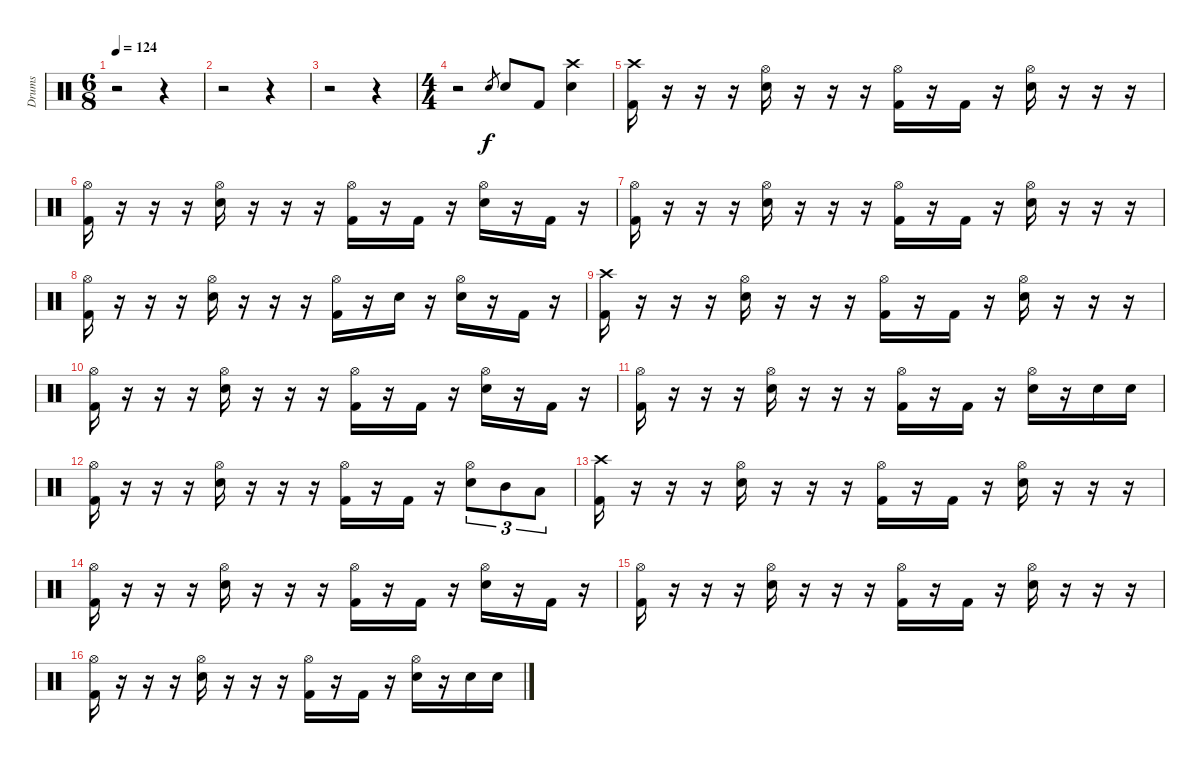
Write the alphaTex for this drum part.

\track ("Drums" "Drums") {instrument percussion}
\staff {score}
\articulation defaults
\ts (6 8)
\tempo 124
\clef neutral
\ks c
r.2{dy f} r.4 |
r.2 r.4 |
r.2 r.4 |
\ts (4 4)
r.2 "Snare (hit) 2".8{gr} "Snare (hit) 2".8 "Kick (hit) 2".8 ("Crash high (hit)" "Snare (hit) 2").4 |
("Crash high (hit)" "Kick (hit) 2").16 r.16 r.16 r.16 ("Hi-Hat (open)" "Snare (hit) 2").16 r.16 r.16 r.16 ("Hi-Hat (open)" "Kick (hit) 2").16 r.16 "Kick (hit) 2".16 r.16 ("Hi-Hat (open)" "Snare (hit) 2").16 r.16 r.16 r.16 |
("Hi-Hat (open)" "Kick (hit) 2").16 r.16 r.16 r.16 ("Hi-Hat (open)" "Snare (hit) 2").16 r.16 r.16 r.16 ("Hi-Hat (open)" "Kick (hit) 2").16 r.16 "Kick (hit) 2".16 r.16 ("Hi-Hat (open)" "Snare (hit) 2").16 r.16 "Kick (hit) 2".16 r.16 |
("Hi-Hat (open)" "Kick (hit) 2").16 r.16 r.16 r.16 ("Hi-Hat (open)" "Snare (hit) 2").16 r.16 r.16 r.16 ("Hi-Hat (open)" "Kick (hit) 2").16 r.16 "Kick (hit) 2".16 r.16 ("Hi-Hat (open)" "Snare (hit) 2").16 r.16 r.16 r.16 |
("Hi-Hat (open)" "Kick (hit) 2").16 r.16 r.16 r.16 ("Hi-Hat (open)" "Snare (hit) 2").16 r.16 r.16 r.16 ("Hi-Hat (open)" "Kick (hit) 2").16 r.16 "Snare (hit) 2".16 r.16 ("Hi-Hat (open)" "Snare (hit) 2").16 r.16 "Kick (hit) 2".16 r.16 |
("Crash high (hit)" "Kick (hit) 2").16 r.16 r.16 r.16 ("Hi-Hat (open)" "Snare (hit) 2").16 r.16 r.16 r.16 ("Hi-Hat (open)" "Kick (hit) 2").16 r.16 "Kick (hit) 2".16 r.16 ("Hi-Hat (open)" "Snare (hit) 2").16 r.16 r.16 r.16 |
("Hi-Hat (open)" "Kick (hit) 2").16 r.16 r.16 r.16 ("Hi-Hat (open)" "Snare (hit) 2").16 r.16 r.16 r.16 ("Hi-Hat (open)" "Kick (hit) 2").16 r.16 "Kick (hit) 2".16 r.16 ("Hi-Hat (open)" "Snare (hit) 2").16 r.16 "Kick (hit) 2".16 r.16 |
("Hi-Hat (open)" "Kick (hit) 2").16 r.16 r.16 r.16 ("Hi-Hat (open)" "Snare (hit) 2").16 r.16 r.16 r.16 ("Hi-Hat (open)" "Kick (hit) 2").16 r.16 "Kick (hit) 2".16 r.16 ("Hi-Hat (open)" "Snare (hit) 2").16 r.16 "Snare (hit) 2".16 "Snare (hit) 2".16 |
("Hi-Hat (open)" "Kick (hit) 2").16 r.16 r.16 r.16 ("Hi-Hat (open)" "Snare (hit) 2").16 r.16 r.16 r.16 ("Hi-Hat (open)" "Kick (hit) 2").16 r.16 "Kick (hit) 2".16 r.16 ("Hi-Hat (open)" "Snare (hit) 2").8{tu (3 2)} "Mid Tom (hit)".8{tu (3 2)} "Low Tom (hit)".8{tu (3 2)} |
("Crash high (hit)" "Kick (hit) 2").16 r.16 r.16 r.16 ("Hi-Hat (open)" "Snare (hit) 2").16 r.16 r.16 r.16 ("Hi-Hat (open)" "Kick (hit) 2").16 r.16 "Kick (hit) 2".16 r.16 ("Hi-Hat (open)" "Snare (hit) 2").16 r.16 r.16 r.16 |
("Hi-Hat (open)" "Kick (hit) 2").16 r.16 r.16 r.16 ("Hi-Hat (open)" "Snare (hit) 2").16 r.16 r.16 r.16 ("Hi-Hat (open)" "Kick (hit) 2").16 r.16 "Kick (hit) 2".16 r.16 ("Hi-Hat (open)" "Snare (hit) 2").16 r.16 "Kick (hit) 2".16 r.16 |
("Hi-Hat (open)" "Kick (hit) 2").16 r.16 r.16 r.16 ("Hi-Hat (open)" "Snare (hit) 2").16 r.16 r.16 r.16 ("Hi-Hat (open)" "Kick (hit) 2").16 r.16 "Kick (hit) 2".16 r.16 ("Hi-Hat (open)" "Snare (hit) 2").16 r.16 r.16 r.16 |
("Hi-Hat (open)" "Kick (hit) 2").16 r.16 r.16 r.16 ("Hi-Hat (open)" "Snare (hit) 2").16 r.16 r.16 r.16 ("Hi-Hat (open)" "Kick (hit) 2").16 r.16 "Kick (hit) 2".16 r.16 ("Hi-Hat (open)" "Snare (hit) 2").16 r.16 "Snare (hit) 2".16 "Snare (hit) 2".16
